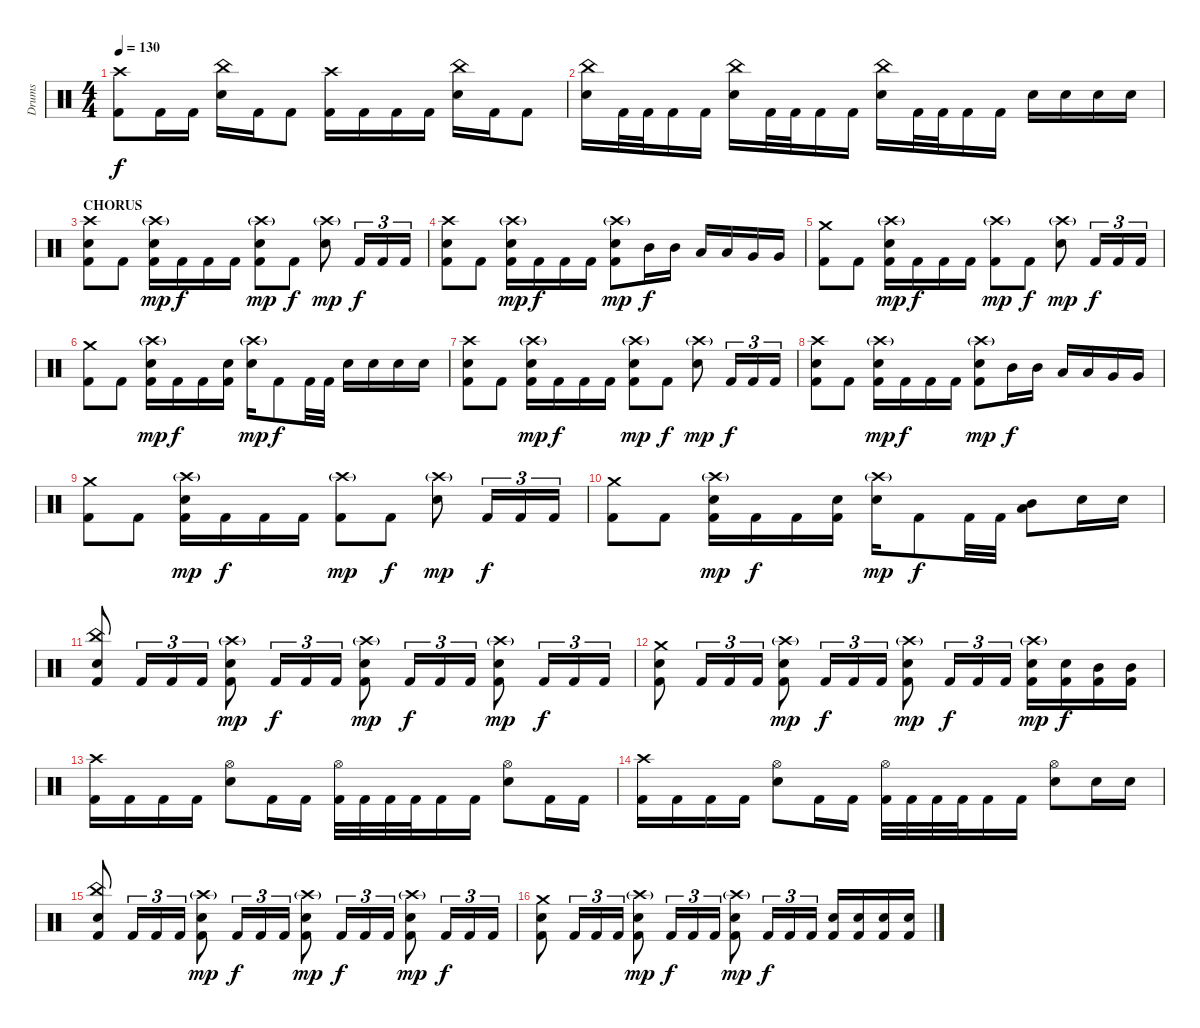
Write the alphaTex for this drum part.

\track ("Drums" "Drums") {instrument percussion}
\staff {score}
\articulation defaults
\ts (4 4)
\tempo 130
\clef neutral
\ks c
("Crash high (hit)" "Kick (hit) 2").8{dy f} "Kick (hit) 2".16 "Kick (hit) 2".16 ("China (hit)" "Electric Snare (hit)").16 "Kick (hit) 2".16 "Kick (hit) 2".8 ("Crash high (hit)" "Kick (hit) 2").16 "Kick (hit) 2".16 "Kick (hit) 2".16 "Kick (hit) 2".16 ("China (hit)" "Electric Snare (hit)").16 "Kick (hit) 2".16 "Kick (hit) 2".8 |
("China (hit)" "Electric Snare (hit)").16 "Kick (hit) 2".32 "Kick (hit) 2".32 "Kick (hit) 2".16 "Kick (hit) 2".16 ("China (hit)" "Electric Snare (hit)").16 "Kick (hit) 2".32 "Kick (hit) 2".32 "Kick (hit) 2".16 "Kick (hit) 2".16 ("China (hit)" "Electric Snare (hit)").16 "Kick (hit) 2".32 "Kick (hit) 2".32 "Kick (hit) 2".16 "Kick (hit) 2".16 "Electric Snare (hit)".16 "Electric Snare (hit)".16 "Electric Snare (hit)".16 "Electric Snare (hit)".16 |
\section ("" "CHORUS")
("Crash high (hit)" "Electric Snare (hit)" "Kick (hit) 2").8 "Kick (hit) 2".8 ("Crash high (hit)"{g} "Electric Snare (hit)" "Kick (hit) 2").16{dy mp} "Kick (hit) 2".16{dy f} "Kick (hit) 2".16 "Kick (hit) 2".16 ("Crash high (hit)"{g} "Electric Snare (hit)" "Kick (hit) 2").8{dy mp} "Kick (hit) 2".8{dy f} ("Crash high (hit)"{g} "Electric Snare (hit)").8{dy mp} "Kick (hit) 2".16{tu (3 2) dy f} "Kick (hit) 2".16{tu (3 2)} "Kick (hit) 2".16{tu (3 2)} |
("Crash high (hit)" "Electric Snare (hit)" "Kick (hit) 2").8 "Kick (hit) 2".8 ("Crash high (hit)"{g} "Electric Snare (hit)" "Kick (hit) 2").16{dy mp} "Kick (hit) 2".16{dy f} "Kick (hit) 2".16 "Kick (hit) 2".16 ("Crash high (hit)"{g} "Electric Snare (hit)" "Kick (hit) 2").8{dy mp} "Mid Tom (hit)".16{dy f} "Mid Tom (hit)".16 "Low Tom (hit)".16 "Low Tom (hit)".16 "Very Low Tom (hit)".16 "Very Low Tom (hit)".16 |
("Crash medium (hit)" "Kick (hit) 2").8 "Kick (hit) 2".8 ("Crash high (hit)"{g} "Electric Snare (hit)" "Kick (hit) 2").16{dy mp} "Kick (hit) 2".16{dy f} "Kick (hit) 2".16 "Kick (hit) 2".16 ("Crash high (hit)"{g} "Kick (hit) 2").8{dy mp} "Kick (hit) 2".8{dy f} ("Crash high (hit)"{g} "Electric Snare (hit)").8{dy mp} "Kick (hit) 2".16{tu (3 2) dy f} "Kick (hit) 2".16{tu (3 2)} "Kick (hit) 2".16{tu (3 2)} |
("Crash medium (hit)" "Kick (hit) 2").8 "Kick (hit) 2".8 ("Crash high (hit)"{g} "Electric Snare (hit)" "Kick (hit) 2").16{dy mp} "Kick (hit) 2".16{dy f} "Kick (hit) 2".16 ("Electric Snare (hit)" "Kick (hit) 2").16 ("Crash high (hit)"{g} "Electric Snare (hit)").16{dy mp} "Kick (hit) 2".8{dy f} "Kick (hit) 2".32 "Kick (hit) 2".32 "Electric Snare (hit)".16 "Electric Snare (hit)".16 "Electric Snare (hit)".16 "Electric Snare (hit)".16 |
("Crash high (hit)" "Electric Snare (hit)" "Kick (hit) 2").8 "Kick (hit) 2".8 ("Crash high (hit)"{g} "Electric Snare (hit)" "Kick (hit) 2").16{dy mp} "Kick (hit) 2".16{dy f} "Kick (hit) 2".16 "Kick (hit) 2".16 ("Crash high (hit)"{g} "Electric Snare (hit)" "Kick (hit) 2").8{dy mp} "Kick (hit) 2".8{dy f} ("Crash high (hit)"{g} "Electric Snare (hit)").8{dy mp} "Kick (hit) 2".16{tu (3 2) dy f} "Kick (hit) 2".16{tu (3 2)} "Kick (hit) 2".16{tu (3 2)} |
("Crash high (hit)" "Electric Snare (hit)" "Kick (hit) 2").8 "Kick (hit) 2".8 ("Crash high (hit)"{g} "Electric Snare (hit)" "Kick (hit) 2").16{dy mp} "Kick (hit) 2".16{dy f} "Kick (hit) 2".16 "Kick (hit) 2".16 ("Crash high (hit)"{g} "Electric Snare (hit)" "Kick (hit) 2").8{dy mp} "Mid Tom (hit)".16{dy f} "Mid Tom (hit)".16 "Low Tom (hit)".16 "Low Tom (hit)".16 "Very Low Tom (hit)".16 "Very Low Tom (hit)".16 |
("Crash medium (hit)" "Kick (hit) 2").8 "Kick (hit) 2".8 ("Crash high (hit)"{g} "Electric Snare (hit)" "Kick (hit) 2").16{dy mp} "Kick (hit) 2".16{dy f} "Kick (hit) 2".16 "Kick (hit) 2".16 ("Crash high (hit)"{g} "Kick (hit) 2").8{dy mp} "Kick (hit) 2".8{dy f} ("Crash high (hit)"{g} "Electric Snare (hit)").8{dy mp} "Kick (hit) 2".16{tu (3 2) dy f} "Kick (hit) 2".16{tu (3 2)} "Kick (hit) 2".16{tu (3 2)} |
("Crash medium (hit)" "Kick (hit) 2").8 "Kick (hit) 2".8 ("Crash high (hit)"{g} "Electric Snare (hit)" "Kick (hit) 2").16{dy mp} "Kick (hit) 2".16{dy f} "Kick (hit) 2".16 ("Electric Snare (hit)" "Kick (hit) 2").16 ("Crash high (hit)"{g} "Electric Snare (hit)").16{dy mp} "Kick (hit) 2".8{dy f} "Kick (hit) 2".32 "Kick (hit) 2".32 ("Low Tom (hit)" "Mid Tom (hit)").8 "Electric Snare (hit)".16 "Electric Snare (hit)".16 |
("China (hit)" "Electric Snare (hit)" "Kick (hit) 2").8 "Kick (hit) 2".16{tu (3 2)} "Kick (hit) 2".16{tu (3 2)} "Kick (hit) 2".16{tu (3 2)} ("Crash high (hit)"{g} "Electric Snare (hit)" "Kick (hit) 2").8{dy mp} "Kick (hit) 2".16{tu (3 2) dy f} "Kick (hit) 2".16{tu (3 2)} "Kick (hit) 2".16{tu (3 2)} ("Crash high (hit)"{g} "Electric Snare (hit)" "Kick (hit) 2").8{dy mp} "Kick (hit) 2".16{tu (3 2) dy f} "Kick (hit) 2".16{tu (3 2)} "Kick (hit) 2".16{tu (3 2)} ("Crash high (hit)"{g} "Electric Snare (hit)" "Kick (hit) 2").8{dy mp} "Kick (hit) 2".16{tu (3 2) dy f} "Kick (hit) 2".16{tu (3 2)} "Kick (hit) 2".16{tu (3 2)} |
("Crash medium (hit)" "Electric Snare (hit)" "Kick (hit) 2").8 "Kick (hit) 2".16{tu (3 2)} "Kick (hit) 2".16{tu (3 2)} "Kick (hit) 2".16{tu (3 2)} ("Crash high (hit)"{g} "Electric Snare (hit)" "Kick (hit) 2").8{dy mp} "Kick (hit) 2".16{tu (3 2) dy f} "Kick (hit) 2".16{tu (3 2)} "Kick (hit) 2".16{tu (3 2)} ("Crash high (hit)"{g} "Electric Snare (hit)" "Kick (hit) 2").8{dy mp} "Kick (hit) 2".16{tu (3 2) dy f} "Kick (hit) 2".16{tu (3 2)} "Kick (hit) 2".16{tu (3 2)} ("Crash high (hit)"{g} "Electric Snare (hit)" "Kick (hit) 2").16{dy mp} ("Electric Snare (hit)" "Kick (hit) 2").16{dy f} ("Mid Tom (hit)" "Kick (hit) 2").16 ("Mid Tom (hit)" "Kick (hit) 2").16 |
("Crash high (hit)" "Kick (hit) 2").16 "Kick (hit) 2".16 "Kick (hit) 2".16 "Kick (hit) 2".16 ("Hi-Hat (open)" "Electric Snare (hit)").8 "Kick (hit) 2".16 "Kick (hit) 2".16 ("Hi-Hat (open)" "Kick (hit) 2").32 "Kick (hit) 2".32 "Kick (hit) 2".32 "Kick (hit) 2".32 "Kick (hit) 2".16 "Kick (hit) 2".16 ("Hi-Hat (open)" "Electric Snare (hit)").8 "Kick (hit) 2".16 "Kick (hit) 2".16 |
("Crash high (hit)" "Kick (hit) 2").16 "Kick (hit) 2".16 "Kick (hit) 2".16 "Kick (hit) 2".16 ("Hi-Hat (open)" "Electric Snare (hit)").8 "Kick (hit) 2".16 "Kick (hit) 2".16 ("Hi-Hat (open)" "Kick (hit) 2").32 "Kick (hit) 2".32 "Kick (hit) 2".32 "Kick (hit) 2".32 "Kick (hit) 2".16 "Kick (hit) 2".16 ("Hi-Hat (open)" "Electric Snare (hit)").8 "Electric Snare (hit)".16 "Electric Snare (hit)".16 |
("China (hit)" "Electric Snare (hit)" "Kick (hit) 2").8 "Kick (hit) 2".16{tu (3 2)} "Kick (hit) 2".16{tu (3 2)} "Kick (hit) 2".16{tu (3 2)} ("Crash high (hit)"{g} "Electric Snare (hit)" "Kick (hit) 2").8{dy mp} "Kick (hit) 2".16{tu (3 2) dy f} "Kick (hit) 2".16{tu (3 2)} "Kick (hit) 2".16{tu (3 2)} ("Crash high (hit)"{g} "Electric Snare (hit)" "Kick (hit) 2").8{dy mp} "Kick (hit) 2".16{tu (3 2) dy f} "Kick (hit) 2".16{tu (3 2)} "Kick (hit) 2".16{tu (3 2)} ("Crash high (hit)"{g} "Electric Snare (hit)" "Kick (hit) 2").8{dy mp} "Kick (hit) 2".16{tu (3 2) dy f} "Kick (hit) 2".16{tu (3 2)} "Kick (hit) 2".16{tu (3 2)} |
("Crash medium (hit)" "Electric Snare (hit)" "Kick (hit) 2").8 "Kick (hit) 2".16{tu (3 2)} "Kick (hit) 2".16{tu (3 2)} "Kick (hit) 2".16{tu (3 2)} ("Crash high (hit)"{g} "Electric Snare (hit)" "Kick (hit) 2").8{dy mp} "Kick (hit) 2".16{tu (3 2) dy f} "Kick (hit) 2".16{tu (3 2)} "Kick (hit) 2".16{tu (3 2)} ("Crash high (hit)"{g} "Electric Snare (hit)" "Kick (hit) 2").8{dy mp} "Kick (hit) 2".16{tu (3 2) dy f} "Kick (hit) 2".16{tu (3 2)} "Kick (hit) 2".16{tu (3 2)} ("Electric Snare (hit)" "Kick (hit) 2").16 ("Electric Snare (hit)" "Kick (hit) 2").16 ("Electric Snare (hit)" "Kick (hit) 2").16 ("Electric Snare (hit)" "Kick (hit) 2").16
